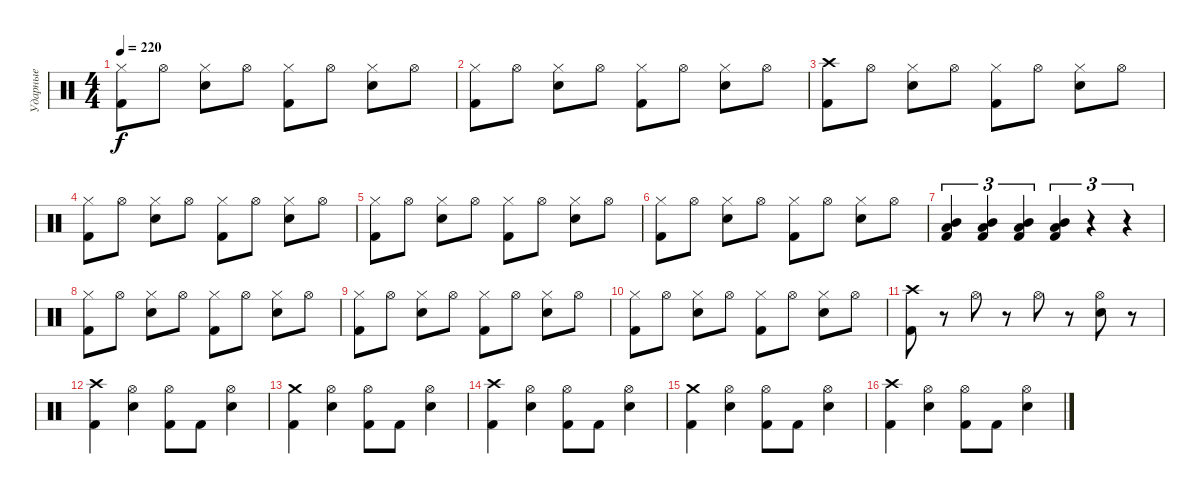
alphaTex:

\track ("Ударные" "Ударные") {instrument percussion}
\staff {score}
\articulation defaults
\ts (4 4)
\tempo 220
\clef neutral
\ks c
("Hi-Hat (closed)" "Kick (hit) 2").8{dy f} "Hi-Hat (open)".8 ("Hi-Hat (closed)" "Electric Snare (hit)").8 "Hi-Hat (open)".8 ("Hi-Hat (closed)" "Kick (hit) 2").8 "Hi-Hat (open)".8 ("Hi-Hat (closed)" "Electric Snare (hit)").8 "Hi-Hat (open)".8 |
("Hi-Hat (closed)" "Kick (hit) 2").8 "Hi-Hat (open)".8 ("Hi-Hat (closed)" "Electric Snare (hit)").8 "Hi-Hat (open)".8 ("Hi-Hat (closed)" "Kick (hit) 2").8 "Hi-Hat (open)".8 ("Hi-Hat (closed)" "Electric Snare (hit)").8 "Hi-Hat (open)".8 |
("Crash high (hit)" "Kick (hit) 2").8 "Hi-Hat (open)".8 ("Hi-Hat (closed)" "Electric Snare (hit)").8 "Hi-Hat (open)".8 ("Hi-Hat (closed)" "Kick (hit) 2").8 "Hi-Hat (open)".8 ("Hi-Hat (closed)" "Electric Snare (hit)").8 "Hi-Hat (open)".8 |
("Hi-Hat (closed)" "Kick (hit) 2").8 "Hi-Hat (open)".8 ("Hi-Hat (closed)" "Electric Snare (hit)").8 "Hi-Hat (open)".8 ("Hi-Hat (closed)" "Kick (hit) 2").8 "Hi-Hat (open)".8 ("Hi-Hat (closed)" "Electric Snare (hit)").8 "Hi-Hat (open)".8 |
("Hi-Hat (closed)" "Kick (hit) 2").8 "Hi-Hat (open)".8 ("Hi-Hat (closed)" "Electric Snare (hit)").8 "Hi-Hat (open)".8 ("Hi-Hat (closed)" "Kick (hit) 2").8 "Hi-Hat (open)".8 ("Hi-Hat (closed)" "Electric Snare (hit)").8 "Hi-Hat (open)".8 |
("Hi-Hat (closed)" "Kick (hit) 2").8 "Hi-Hat (open)".8 ("Hi-Hat (closed)" "Electric Snare (hit)").8 "Hi-Hat (open)".8 ("Hi-Hat (closed)" "Kick (hit) 2").8 "Hi-Hat (open)".8 ("Hi-Hat (closed)" "Electric Snare (hit)").8 "Hi-Hat (open)".8 |
("Mid Tom (hit)" "Low Tom (hit)" "Kick (hit) 2").4{tu (3 2)} ("Mid Tom (hit)" "Low Tom (hit)" "Kick (hit) 2").4{tu (3 2)} ("Mid Tom (hit)" "Low Tom (hit)" "Kick (hit) 2").4{tu (3 2)} ("Mid Tom (hit)" "Low Tom (hit)" "Kick (hit) 2").4{tu (3 2)} r.4{tu (3 2)} r.4{tu (3 2)} |
("Hi-Hat (closed)" "Kick (hit) 2").8 "Hi-Hat (open)".8 ("Hi-Hat (closed)" "Electric Snare (hit)").8 "Hi-Hat (open)".8 ("Hi-Hat (closed)" "Kick (hit) 2").8 "Hi-Hat (open)".8 ("Hi-Hat (closed)" "Electric Snare (hit)").8 "Hi-Hat (open)".8 |
("Hi-Hat (closed)" "Kick (hit) 2").8 "Hi-Hat (open)".8 ("Hi-Hat (closed)" "Electric Snare (hit)").8 "Hi-Hat (open)".8 ("Hi-Hat (closed)" "Kick (hit) 2").8 "Hi-Hat (open)".8 ("Hi-Hat (closed)" "Electric Snare (hit)").8 "Hi-Hat (open)".8 |
("Hi-Hat (closed)" "Kick (hit) 2").8 "Hi-Hat (open)".8 ("Hi-Hat (closed)" "Electric Snare (hit)").8 "Hi-Hat (open)".8 ("Hi-Hat (closed)" "Kick (hit) 2").8 "Hi-Hat (open)".8 ("Hi-Hat (closed)" "Electric Snare (hit)").8 "Hi-Hat (open)".8 |
("Crash high (hit)" "Kick (hit) 2").8 r.8 "Hi-Hat (open)".8 r.8 "Hi-Hat (open)".8 r.8 ("Hi-Hat (open)" "Electric Snare (hit)").8 r.8 |
("Crash high (hit)" "Kick (hit) 2").4 ("Hi-Hat (open)" "Electric Snare (hit)").4 ("Hi-Hat (open)" "Kick (hit) 2").8 "Kick (hit) 2".8 ("Hi-Hat (open)" "Electric Snare (hit)").4 |
("Crash medium (hit)" "Kick (hit) 2").4 ("Hi-Hat (open)" "Electric Snare (hit)").4 ("Hi-Hat (open)" "Kick (hit) 2").8 "Kick (hit) 2".8 ("Hi-Hat (open)" "Electric Snare (hit)").4 |
("Crash high (hit)" "Kick (hit) 2").4 ("Hi-Hat (open)" "Electric Snare (hit)").4 ("Hi-Hat (open)" "Kick (hit) 2").8 "Kick (hit) 2".8 ("Hi-Hat (open)" "Electric Snare (hit)").4 |
("Crash medium (hit)" "Kick (hit) 2").4 ("Hi-Hat (open)" "Electric Snare (hit)").4 ("Hi-Hat (open)" "Kick (hit) 2").8 "Kick (hit) 2".8 ("Hi-Hat (open)" "Electric Snare (hit)").4 |
("Crash high (hit)" "Kick (hit) 2").4 ("Hi-Hat (open)" "Electric Snare (hit)").4 ("Hi-Hat (open)" "Kick (hit) 2").8 "Kick (hit) 2".8 ("Hi-Hat (open)" "Electric Snare (hit)").4
